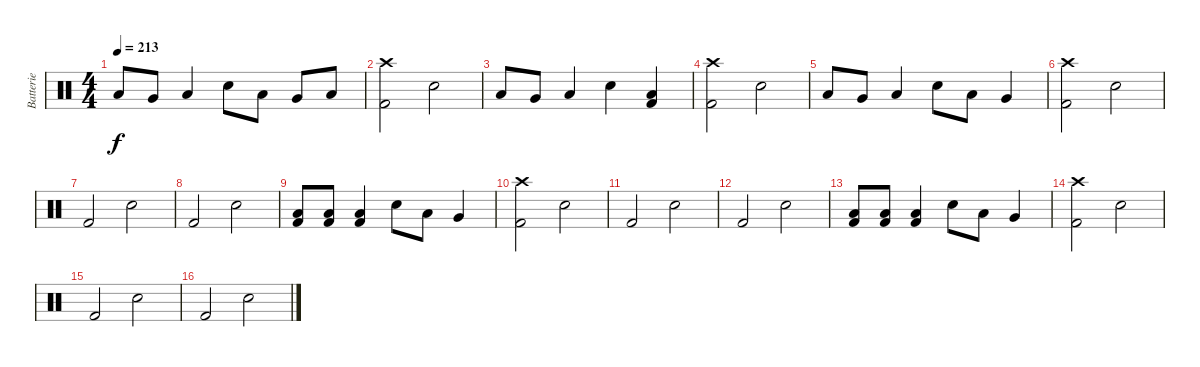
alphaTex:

\track ("Batterie" "Batterie") {instrument percussion}
\staff {score}
\articulation defaults
\ts (4 4)
\tempo 213
\clef neutral
\ks c "Low Tom (hit)".8{dy f} "Very Low Tom (hit)".8 "Low Floor Tom (hit)".4 "Electric Snare (hit)".8 "Low Tom (hit)".8 "Very Low Tom (hit)".8 "Low Floor Tom (hit)".8
|
("Crash high (hit)" "Kick (hit) 2").2 "Electric Snare (hit)".2 |
"Low Tom (hit)".8 "Very Low Tom (hit)".8 "Low Floor Tom (hit)".4 "Electric Snare (hit)".4 ("Kick (hit) 2" "Low Floor Tom (hit)").4 |
("Crash high (hit)" "Kick (hit) 2").2 "Electric Snare (hit)".2 |
"Low Tom (hit)".8 "Very Low Tom (hit)".8 "Low Floor Tom (hit)".4 "Electric Snare (hit)".8 "Low Tom (hit)".8 "Very Low Tom (hit)".4 |
("Crash high (hit)" "Kick (hit) 2").2 "Electric Snare (hit)".2 |
"Kick (hit) 2".2 "Electric Snare (hit)".2 |
"Kick (hit) 2".2 "Electric Snare (hit)".2 |
("Low Floor Tom (hit)" "Kick (hit) 2").8 ("Low Floor Tom (hit)" "Kick (hit) 2").8 ("Low Floor Tom (hit)" "Kick (hit) 2").4 "Electric Snare (hit)".8 "Low Tom (hit)".8 "Very Low Tom (hit)".4 |
("Crash high (hit)" "Kick (hit) 2").2 "Electric Snare (hit)".2 |
"Kick (hit) 2".2 "Electric Snare (hit)".2 |
"Kick (hit) 2".2 "Electric Snare (hit)".2 |
("Low Floor Tom (hit)" "Kick (hit) 2").8 ("Low Floor Tom (hit)" "Kick (hit) 2").8 ("Low Floor Tom (hit)" "Kick (hit) 2").4 "Electric Snare (hit)".8 "Low Tom (hit)".8 "Very Low Tom (hit)".4 |
("Crash high (hit)" "Kick (hit) 2").2 "Electric Snare (hit)".2 |
"Kick (hit) 2".2 "Electric Snare (hit)".2 |
"Kick (hit) 2".2 "Electric Snare (hit)".2
